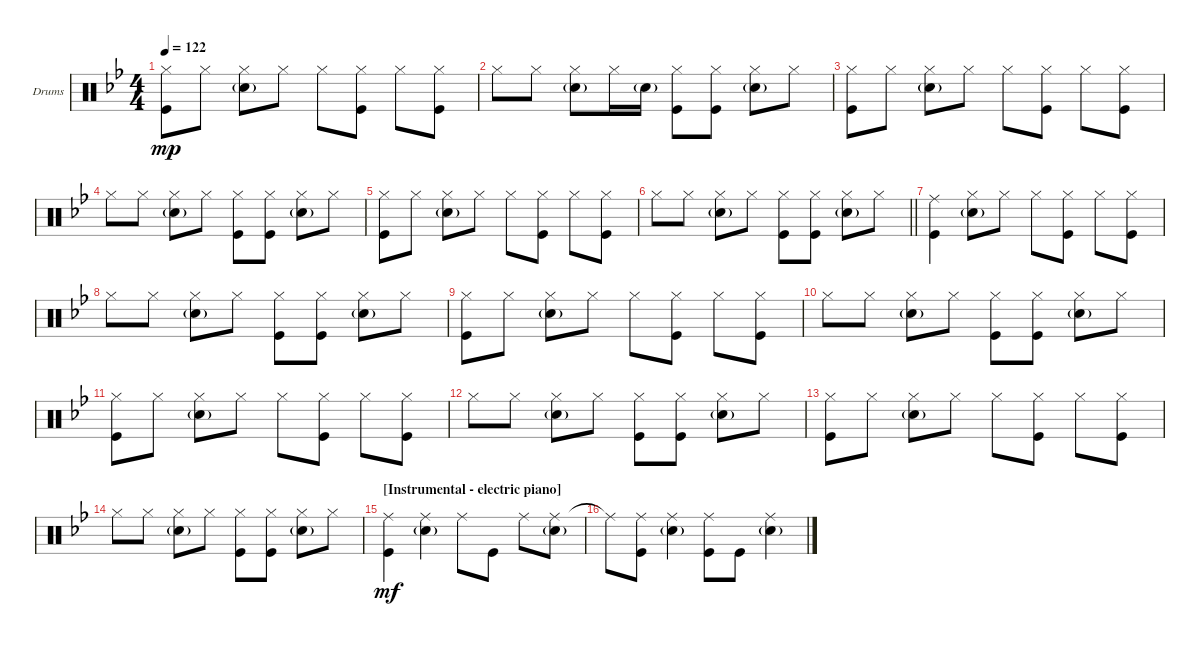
\defaultSystemsLayout 4
\bracketExtendMode groupsimilarinstruments
\firstSystemTrackNameOrientation horizontal
\otherSystemsTrackNameOrientation horizontal
\track ("Drumkit" "Drums") {instrument percussion}
\staff {score}
\articulation defaults
\ts (4 4)
\tempo 122
\clef neutral
\ks bb
("Hi-Hat (closed)" "Kick (hit)").8{dy mp} "Hi-Hat (closed)".8 ("Hi-Hat (closed)" "Snare (hit) 2"{g}).8 "Hi-Hat (closed)".8 "Hi-Hat (closed)".8 ("Hi-Hat (closed)" "Kick (hit)").8 "Hi-Hat (closed)".8 ("Hi-Hat (closed)" "Kick (hit)").8 |
"Hi-Hat (closed)".8 "Hi-Hat (closed)".8 ("Hi-Hat (closed)" "Snare (hit) 2"{g}).8 "Hi-Hat (closed)".16 "Snare (hit) 2"{g}.16 ("Hi-Hat (closed)" "Kick (hit)").8 ("Hi-Hat (closed)" "Kick (hit)").8 ("Hi-Hat (closed)" "Snare (hit) 2"{g}).8 "Hi-Hat (closed)".8 |
("Hi-Hat (closed)" "Kick (hit)").8 "Hi-Hat (closed)".8 ("Hi-Hat (closed)" "Snare (hit) 2"{g}).8 "Hi-Hat (closed)".8 "Hi-Hat (closed)".8 ("Hi-Hat (closed)" "Kick (hit)").8 "Hi-Hat (closed)".8 ("Hi-Hat (closed)" "Kick (hit)").8 |
"Hi-Hat (closed)".8 "Hi-Hat (closed)".8 ("Hi-Hat (closed)" "Snare (hit) 2"{g}).8 "Hi-Hat (closed)".8 ("Hi-Hat (closed)" "Kick (hit)").8 ("Hi-Hat (closed)" "Kick (hit)").8 ("Hi-Hat (closed)" "Snare (hit) 2"{g}).8 "Hi-Hat (closed)".8 |
("Hi-Hat (closed)" "Kick (hit)").8 "Hi-Hat (closed)".8 ("Hi-Hat (closed)" "Snare (hit) 2"{g}).8 "Hi-Hat (closed)".8 "Hi-Hat (closed)".8 ("Hi-Hat (closed)" "Kick (hit)").8 "Hi-Hat (closed)".8 ("Hi-Hat (closed)" "Kick (hit)").8 |
\barLineRight lightlight "Hi-Hat (closed)".8 "Hi-Hat (closed)".8
("Hi-Hat (closed)" "Snare (hit) 2"{g}).8 "Hi-Hat (closed)".8 ("Hi-Hat (closed)" "Kick (hit)").8 ("Hi-Hat (closed)" "Kick (hit)").8 ("Hi-Hat (closed)" "Snare (hit) 2"{g}).8 "Hi-Hat (closed)".8 |
("Kick (hit)" "Ride (middle)").4 ("Hi-Hat (closed)" "Snare (hit) 2"{g}).8 "Hi-Hat (closed)".8 "Hi-Hat (closed)".8 ("Hi-Hat (closed)" "Kick (hit)").8 "Hi-Hat (closed)".8 ("Hi-Hat (closed)" "Kick (hit)").8 |
"Hi-Hat (closed)".8 "Hi-Hat (closed)".8 ("Hi-Hat (closed)" "Snare (hit) 2"{g}).8 "Hi-Hat (closed)".8 ("Hi-Hat (closed)" "Kick (hit)").8 ("Hi-Hat (closed)" "Kick (hit)").8 ("Hi-Hat (closed)" "Snare (hit) 2"{g}).8 "Hi-Hat (closed)".8 |
("Hi-Hat (closed)" "Kick (hit)").8 "Hi-Hat (closed)".8 ("Hi-Hat (closed)" "Snare (hit) 2"{g}).8 "Hi-Hat (closed)".8 "Hi-Hat (closed)".8 ("Hi-Hat (closed)" "Kick (hit)").8 "Hi-Hat (closed)".8 ("Hi-Hat (closed)" "Kick (hit)").8 |
"Hi-Hat (closed)".8 "Hi-Hat (closed)".8 ("Hi-Hat (closed)" "Snare (hit) 2"{g}).8 "Hi-Hat (closed)".8 ("Hi-Hat (closed)" "Kick (hit)").8 ("Hi-Hat (closed)" "Kick (hit)").8 ("Hi-Hat (closed)" "Snare (hit) 2"{g}).8 "Hi-Hat (closed)".8 |
("Hi-Hat (closed)" "Kick (hit)").8 "Hi-Hat (closed)".8 ("Hi-Hat (closed)" "Snare (hit) 2"{g}).8 "Hi-Hat (closed)".8 "Hi-Hat (closed)".8 ("Hi-Hat (closed)" "Kick (hit)").8 "Hi-Hat (closed)".8 ("Hi-Hat (closed)" "Kick (hit)").8 |
"Hi-Hat (closed)".8 "Hi-Hat (closed)".8 ("Hi-Hat (closed)" "Snare (hit) 2"{g}).8 "Hi-Hat (closed)".8 ("Hi-Hat (closed)" "Kick (hit)").8 ("Hi-Hat (closed)" "Kick (hit)").8 ("Hi-Hat (closed)" "Snare (hit) 2"{g}).8 "Hi-Hat (closed)".8 |
("Hi-Hat (closed)" "Kick (hit)").8 "Hi-Hat (closed)".8 ("Hi-Hat (closed)" "Snare (hit) 2"{g}).8 "Hi-Hat (closed)".8 "Hi-Hat (closed)".8 ("Hi-Hat (closed)" "Kick (hit)").8 "Hi-Hat (closed)".8 ("Hi-Hat (closed)" "Kick (hit)").8 |
"Hi-Hat (closed)".8 "Hi-Hat (closed)".8 ("Hi-Hat (closed)" "Snare (hit) 2"{g}).8 "Hi-Hat (closed)".8 ("Hi-Hat (closed)" "Kick (hit)").8 ("Hi-Hat (closed)" "Kick (hit)").8 ("Hi-Hat (closed)" "Snare (hit) 2"{g}).8 "Hi-Hat (closed)".8 |
\section ("" "[Instrumental - electric piano]")
("Ride (middle)" "Kick (hit)").4{dy mf} ("Ride (middle)" "Snare (hit) 2"{g}).4 "Ride (middle)".8 "Kick (hit)".8 "Ride (middle)".8 ("Ride (middle)" "Snare (hit) 2"{g}).8 |
"Ride (middle)"{t}.8 ("Ride (middle)" "Kick (hit)").8 ("Ride (middle)" "Snare (hit) 2"{g}).4 ("Ride (middle)" "Kick (hit)").8 "Kick (hit)".8 ("Snare (hit) 2"{g} "Ride (middle)").4
